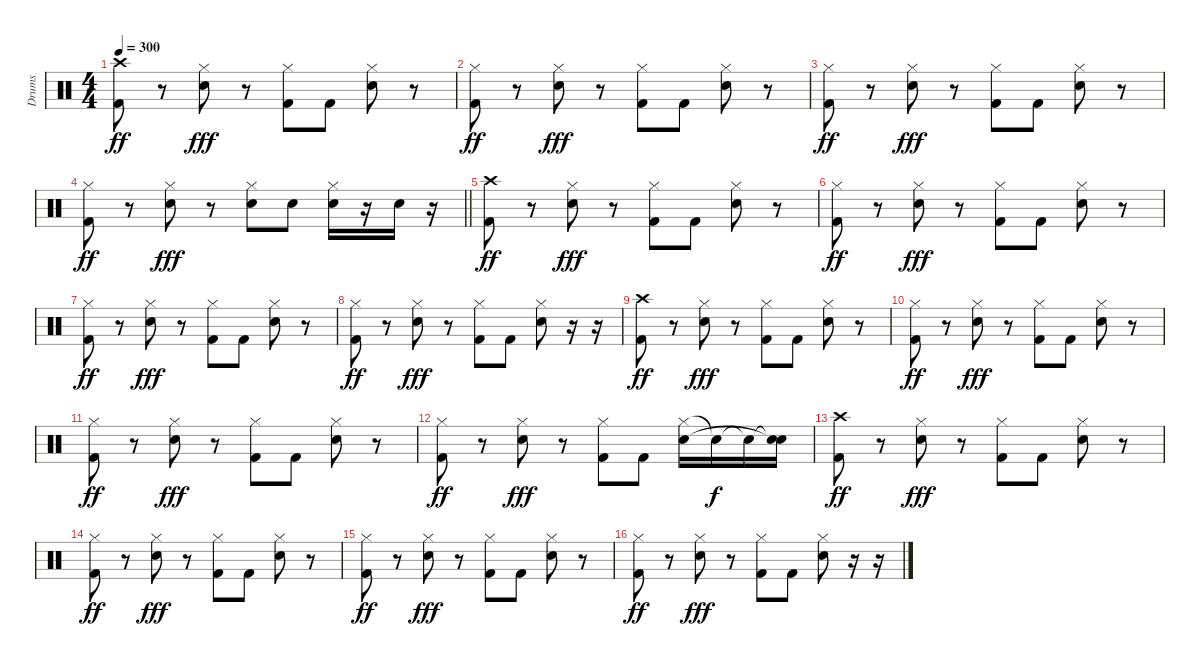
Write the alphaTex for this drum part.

\track ("Drums" "Drums") {instrument percussion}
\staff {score}
\articulation defaults
\ts (4 4)
\tempo 300
\clef neutral
\ks c
("Crash high (hit)" "Kick (hit) 2").8{dy ff} r.8 ("Hi-Hat (closed)" "Snare (hit) 2").8{dy fff} r.8 ("Hi-Hat (closed)" "Kick (hit) 2").8 "Kick (hit) 2".8 ("Hi-Hat (closed)" "Snare (hit) 2").8 r.8 |
("Hi-Hat (closed)" "Kick (hit) 2").8{dy ff} r.8 ("Hi-Hat (closed)" "Snare (hit) 2").8{dy fff} r.8 ("Hi-Hat (closed)" "Kick (hit) 2").8 "Kick (hit) 2".8 ("Hi-Hat (closed)" "Snare (hit) 2").8 r.8 |
("Hi-Hat (closed)" "Kick (hit) 2").8{dy ff} r.8 ("Hi-Hat (closed)" "Snare (hit) 2").8{dy fff} r.8 ("Hi-Hat (closed)" "Kick (hit) 2").8 "Kick (hit) 2".8 ("Hi-Hat (closed)" "Snare (hit) 2").8 r.8 |
\barLineRight lightlight
("Hi-Hat (closed)" "Kick (hit) 2").8{dy ff} r.8 ("Hi-Hat (closed)" "Snare (hit) 2").8{dy fff} r.8 ("Hi-Hat (closed)" "Snare (hit) 2").8 "Snare (hit) 2".8 ("Hi-Hat (closed)" "Snare (hit) 2").16 r.16 "Snare (hit) 2".16 r.16 |
("Crash high (hit)" "Kick (hit) 2").8{dy ff} r.8 ("Hi-Hat (closed)" "Snare (hit) 2").8{dy fff} r.8 ("Hi-Hat (closed)" "Kick (hit) 2").8 "Kick (hit) 2".8 ("Hi-Hat (closed)" "Snare (hit) 2").8 r.8 |
("Hi-Hat (closed)" "Kick (hit) 2").8{dy ff} r.8 ("Hi-Hat (closed)" "Snare (hit) 2").8{dy fff} r.8 ("Hi-Hat (closed)" "Kick (hit) 2").8 "Kick (hit) 2".8 ("Hi-Hat (closed)" "Snare (hit) 2").8 r.8 |
("Hi-Hat (closed)" "Kick (hit) 2").8{dy ff} r.8 ("Hi-Hat (closed)" "Snare (hit) 2").8{dy fff} r.8 ("Hi-Hat (closed)" "Kick (hit) 2").8 "Kick (hit) 2".8 ("Hi-Hat (closed)" "Snare (hit) 2").8 r.8 |
("Hi-Hat (closed)" "Kick (hit) 2").8{dy ff} r.8 ("Hi-Hat (closed)" "Snare (hit) 2").8{dy fff} r.8 ("Hi-Hat (closed)" "Kick (hit) 2").8 "Kick (hit) 2".8 ("Hi-Hat (closed)" "Snare (hit) 2").8 r.16 r.16 |
("Crash high (hit)" "Kick (hit) 2").8{dy ff} r.8 ("Hi-Hat (closed)" "Snare (hit) 2").8{dy fff} r.8 ("Hi-Hat (closed)" "Kick (hit) 2").8 "Kick (hit) 2".8 ("Hi-Hat (closed)" "Snare (hit) 2").8 r.8 |
("Hi-Hat (closed)" "Kick (hit) 2").8{dy ff} r.8 ("Hi-Hat (closed)" "Snare (hit) 2").8{dy fff} r.8 ("Hi-Hat (closed)" "Kick (hit) 2").8 "Kick (hit) 2".8 ("Hi-Hat (closed)" "Snare (hit) 2").8 r.8 |
("Hi-Hat (closed)" "Kick (hit) 2").8{dy ff} r.8 ("Hi-Hat (closed)" "Snare (hit) 2").8{dy fff} r.8 ("Hi-Hat (closed)" "Kick (hit) 2").8 "Kick (hit) 2".8 ("Hi-Hat (closed)" "Snare (hit) 2").8 r.8 |
("Hi-Hat (closed)" "Kick (hit) 2").8{dy ff} r.8 ("Hi-Hat (closed)" "Snare (hit) 2").8{dy fff} r.8 ("Hi-Hat (closed)" "Kick (hit) 2").8 "Kick (hit) 2".8 ("Hi-Hat (closed)" "Snare (hit) 2").16 "Snare (hit)"{t}.16{dy f} "Snare (hit)"{t}.16 ("Snare (hit)"{t} "Snare (hit) 2"{t}).16 |
("Crash high (hit)" "Kick (hit) 2").8{dy ff} r.8 ("Hi-Hat (closed)" "Snare (hit) 2").8{dy fff} r.8 ("Hi-Hat (closed)" "Kick (hit) 2").8 "Kick (hit) 2".8 ("Hi-Hat (closed)" "Snare (hit) 2").8 r.8 |
("Hi-Hat (closed)" "Kick (hit) 2").8{dy ff} r.8 ("Hi-Hat (closed)" "Snare (hit) 2").8{dy fff} r.8 ("Hi-Hat (closed)" "Kick (hit) 2").8 "Kick (hit) 2".8 ("Hi-Hat (closed)" "Snare (hit) 2").8 r.8 |
("Hi-Hat (closed)" "Kick (hit) 2").8{dy ff} r.8 ("Hi-Hat (closed)" "Snare (hit) 2").8{dy fff} r.8 ("Hi-Hat (closed)" "Kick (hit) 2").8 "Kick (hit) 2".8 ("Hi-Hat (closed)" "Snare (hit) 2").8 r.8 |
("Hi-Hat (closed)" "Kick (hit) 2").8{dy ff} r.8 ("Hi-Hat (closed)" "Snare (hit) 2").8{dy fff} r.8 ("Hi-Hat (closed)" "Kick (hit) 2").8 "Kick (hit) 2".8 ("Hi-Hat (closed)" "Snare (hit) 2").8 r.16 r.16
